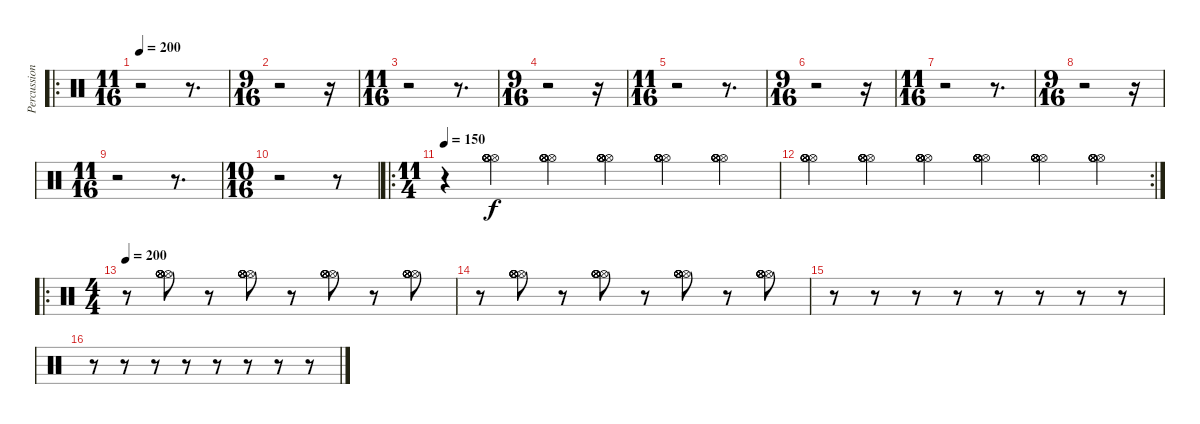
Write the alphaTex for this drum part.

\track ("Percussion" "Percussion") {instrument percussion}
\staff {score}
\articulation defaults
\ro
\ts (11 16)
\tempo 200
\clef neutral
\ks c
r.2{dy f} r.8{d} |
\ts (9 16)
r.2 r.16 |
\ts (11 16)
r.2 r.8{d} |
\ts (9 16)
r.2 r.16 |
\ts (11 16)
r.2 r.8{d} |
\ts (9 16)
r.2 r.16 |
\ts (11 16)
r.2 r.8{d} |
\ts (9 16)
r.2 r.16 |
\ts (11 16)
r.2 r.8{d} |
\ts (10 16)
r.2 r.8 |
\ro
\ts (11 4)
\tempo 150
r.4 ("Hi-Hat (open)" "Hi-Hat (open)" "Hi-Hat (open)" "Hi-Hat (open)" "Hi-Hat (open)" "Hi-Hat (open)").2 ("Hi-Hat (open)" "Hi-Hat (open)" "Hi-Hat (open)" "Hi-Hat (open)" "Hi-Hat (open)" "Hi-Hat (open)").2 ("Hi-Hat (open)" "Hi-Hat (open)" "Hi-Hat (open)" "Hi-Hat (open)" "Hi-Hat (open)" "Hi-Hat (open)").2 ("Hi-Hat (open)" "Hi-Hat (open)" "Hi-Hat (open)" "Hi-Hat (open)" "Hi-Hat (open)" "Hi-Hat (open)").2 ("Hi-Hat (open)" "Hi-Hat (open)" "Hi-Hat (open)" "Hi-Hat (open)" "Hi-Hat (open)" "Hi-Hat (open)").2 |
\rc 2
("Hi-Hat (open)" "Hi-Hat (open)" "Hi-Hat (open)" "Hi-Hat (open)" "Hi-Hat (open)" "Hi-Hat (open)").2 ("Hi-Hat (open)" "Hi-Hat (open)" "Hi-Hat (open)" "Hi-Hat (open)" "Hi-Hat (open)" "Hi-Hat (open)").2 ("Hi-Hat (open)" "Hi-Hat (open)" "Hi-Hat (open)" "Hi-Hat (open)" "Hi-Hat (open)" "Hi-Hat (open)").2 ("Hi-Hat (open)" "Hi-Hat (open)" "Hi-Hat (open)" "Hi-Hat (open)" "Hi-Hat (open)" "Hi-Hat (open)").2 ("Hi-Hat (open)" "Hi-Hat (open)" "Hi-Hat (open)" "Hi-Hat (open)" "Hi-Hat (open)" "Hi-Hat (open)").2 ("Hi-Hat (open)" "Hi-Hat (open)" "Hi-Hat (open)" "Hi-Hat (open)" "Hi-Hat (open)" "Hi-Hat (open)").4 |
\ro
\ts (4 4)
\tempo 200
r.8 ("Hi-Hat (open)" "Hi-Hat (open)" "Hi-Hat (open)" "Hi-Hat (open)" "Hi-Hat (open)" "Hi-Hat (open)").8 r.8 ("Hi-Hat (open)" "Hi-Hat (open)" "Hi-Hat (open)" "Hi-Hat (open)" "Hi-Hat (open)" "Hi-Hat (open)").8 r.8 ("Hi-Hat (open)" "Hi-Hat (open)" "Hi-Hat (open)" "Hi-Hat (open)" "Hi-Hat (open)" "Hi-Hat (open)").8 r.8 ("Hi-Hat (open)" "Hi-Hat (open)" "Hi-Hat (open)" "Hi-Hat (open)" "Hi-Hat (open)" "Hi-Hat (open)").8 |
r.8 ("Hi-Hat (open)" "Hi-Hat (open)" "Hi-Hat (open)" "Hi-Hat (open)" "Hi-Hat (open)" "Hi-Hat (open)").8 r.8 ("Hi-Hat (open)" "Hi-Hat (open)" "Hi-Hat (open)" "Hi-Hat (open)" "Hi-Hat (open)" "Hi-Hat (open)").8 r.8 ("Hi-Hat (open)" "Hi-Hat (open)" "Hi-Hat (open)" "Hi-Hat (open)" "Hi-Hat (open)" "Hi-Hat (open)").8 r.8 ("Hi-Hat (open)" "Hi-Hat (open)" "Hi-Hat (open)" "Hi-Hat (open)" "Hi-Hat (open)" "Hi-Hat (open)").8 |
r.8 r.8 r.8 r.8 r.8 r.8 r.8 r.8 |
r.8 r.8 r.8 r.8 r.8 r.8 r.8 r.8
